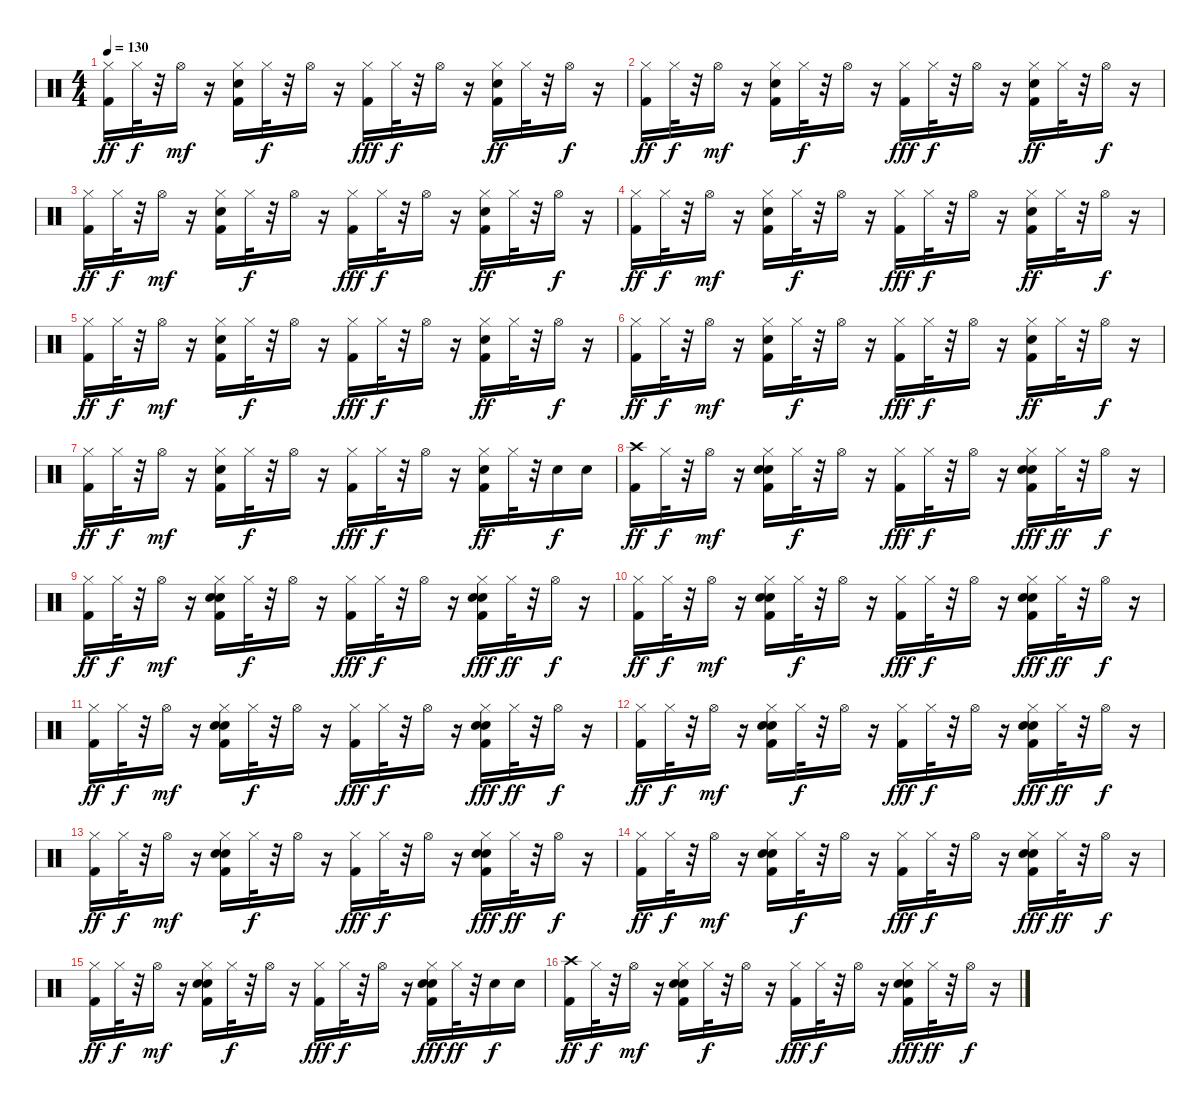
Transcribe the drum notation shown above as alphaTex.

\track "" {instrument percussion}
\staff {score}
\articulation defaults
\ts (4 4)
\tempo 130
\clef neutral
\ks c
("Kick (hit) 2" "Hi-Hat (closed)").16{dy ff} "Hi-Hat (closed)".32{dy f} r.32 "Hi-Hat (open)".16{dy mf} r.16 ("Kick (hit) 2" "Electric Snare (hit)" "Hi-Hat (closed)").16 "Hi-Hat (closed)".32{dy f} r.32 "Hi-Hat (open)".16 r.16 ("Kick (hit) 2" "Hi-Hat (closed)").16{dy fff} "Hi-Hat (closed)".32{dy f} r.32 "Hi-Hat (open)".16 r.16 ("Kick (hit) 2" "Electric Snare (hit)" "Hi-Hat (closed)").16{dy ff} "Hi-Hat (closed)".32 r.32 "Hi-Hat (open)".16{dy f} r.16 |
("Kick (hit) 2" "Hi-Hat (closed)").16{dy ff} "Hi-Hat (closed)".32{dy f} r.32 "Hi-Hat (open)".16{dy mf} r.16 ("Kick (hit) 2" "Electric Snare (hit)" "Hi-Hat (closed)").16 "Hi-Hat (closed)".32{dy f} r.32 "Hi-Hat (open)".16 r.16 ("Kick (hit) 2" "Hi-Hat (closed)").16{dy fff} "Hi-Hat (closed)".32{dy f} r.32 "Hi-Hat (open)".16 r.16 ("Kick (hit) 2" "Electric Snare (hit)" "Hi-Hat (closed)").16{dy ff} "Hi-Hat (closed)".32 r.32 "Hi-Hat (open)".16{dy f} r.16 |
("Kick (hit) 2" "Hi-Hat (closed)").16{dy ff} "Hi-Hat (closed)".32{dy f} r.32 "Hi-Hat (open)".16{dy mf} r.16 ("Kick (hit) 2" "Electric Snare (hit)" "Hi-Hat (closed)").16 "Hi-Hat (closed)".32{dy f} r.32 "Hi-Hat (open)".16 r.16 ("Kick (hit) 2" "Hi-Hat (closed)").16{dy fff} "Hi-Hat (closed)".32{dy f} r.32 "Hi-Hat (open)".16 r.16 ("Kick (hit) 2" "Electric Snare (hit)" "Hi-Hat (closed)").16{dy ff} "Hi-Hat (closed)".32 r.32 "Hi-Hat (open)".16{dy f} r.16 |
("Kick (hit) 2" "Hi-Hat (closed)").16{dy ff} "Hi-Hat (closed)".32{dy f} r.32 "Hi-Hat (open)".16{dy mf} r.16 ("Kick (hit) 2" "Electric Snare (hit)" "Hi-Hat (closed)").16 "Hi-Hat (closed)".32{dy f} r.32 "Hi-Hat (open)".16 r.16 ("Kick (hit) 2" "Hi-Hat (closed)").16{dy fff} "Hi-Hat (closed)".32{dy f} r.32 "Hi-Hat (open)".16 r.16 ("Kick (hit) 2" "Electric Snare (hit)" "Hi-Hat (closed)").16{dy ff} "Hi-Hat (closed)".32 r.32 "Hi-Hat (open)".16{dy f} r.16 |
("Kick (hit) 2" "Hi-Hat (closed)").16{dy ff} "Hi-Hat (closed)".32{dy f} r.32 "Hi-Hat (open)".16{dy mf} r.16 ("Kick (hit) 2" "Electric Snare (hit)" "Hi-Hat (closed)").16 "Hi-Hat (closed)".32{dy f} r.32 "Hi-Hat (open)".16 r.16 ("Kick (hit) 2" "Hi-Hat (closed)").16{dy fff} "Hi-Hat (closed)".32{dy f} r.32 "Hi-Hat (open)".16 r.16 ("Kick (hit) 2" "Electric Snare (hit)" "Hi-Hat (closed)").16{dy ff} "Hi-Hat (closed)".32 r.32 "Hi-Hat (open)".16{dy f} r.16 |
("Kick (hit) 2" "Hi-Hat (closed)").16{dy ff} "Hi-Hat (closed)".32{dy f} r.32 "Hi-Hat (open)".16{dy mf} r.16 ("Kick (hit) 2" "Electric Snare (hit)" "Hi-Hat (closed)").16 "Hi-Hat (closed)".32{dy f} r.32 "Hi-Hat (open)".16 r.16 ("Kick (hit) 2" "Hi-Hat (closed)").16{dy fff} "Hi-Hat (closed)".32{dy f} r.32 "Hi-Hat (open)".16 r.16 ("Kick (hit) 2" "Electric Snare (hit)" "Hi-Hat (closed)").16{dy ff} "Hi-Hat (closed)".32 r.32 "Hi-Hat (open)".16{dy f} r.16 |
("Kick (hit) 2" "Hi-Hat (closed)").16{dy ff} "Hi-Hat (closed)".32{dy f} r.32 "Hi-Hat (open)".16{dy mf} r.16 ("Kick (hit) 2" "Electric Snare (hit)" "Hi-Hat (closed)").16 "Hi-Hat (closed)".32{dy f} r.32 "Hi-Hat (open)".16 r.16 ("Kick (hit) 2" "Hi-Hat (closed)").16{dy fff} "Hi-Hat (closed)".32{dy f} r.32 "Hi-Hat (open)".16 r.16 ("Kick (hit) 2" "Electric Snare (hit)" "Hi-Hat (closed)").16{dy ff} "Hi-Hat (closed)".32 r.32 "Electric Snare (hit)".16{dy f} "Electric Snare (hit)".16 |
("Kick (hit) 2" "Crash high (hit)").16{dy ff} "Hi-Hat (closed)".32{dy f} r.32 "Hi-Hat (open)".16{dy mf} r.16 ("Kick (hit) 2" "Hand Clap (hit)" "Electric Snare (hit)" "Hi-Hat (closed)").16 "Hi-Hat (closed)".32{dy f} r.32 "Hi-Hat (open)".16 r.16 ("Kick (hit) 2" "Hi-Hat (closed)").16{dy fff} "Hi-Hat (closed)".32{dy f} r.32 "Hi-Hat (open)".16 r.16 ("Kick (hit) 2" "Hand Clap (hit)" "Electric Snare (hit)" "Hi-Hat (closed)").16{dy fff} "Hi-Hat (closed)".32{dy ff} r.32 "Hi-Hat (open)".16{dy f} r.16 |
("Kick (hit) 2" "Hi-Hat (closed)").16{dy ff} "Hi-Hat (closed)".32{dy f} r.32 "Hi-Hat (open)".16{dy mf} r.16 ("Kick (hit) 2" "Hand Clap (hit)" "Electric Snare (hit)" "Hi-Hat (closed)").16 "Hi-Hat (closed)".32{dy f} r.32 "Hi-Hat (open)".16 r.16 ("Kick (hit) 2" "Hi-Hat (closed)").16{dy fff} "Hi-Hat (closed)".32{dy f} r.32 "Hi-Hat (open)".16 r.16 ("Kick (hit) 2" "Hand Clap (hit)" "Electric Snare (hit)" "Hi-Hat (closed)").16{dy fff} "Hi-Hat (closed)".32{dy ff} r.32 "Hi-Hat (open)".16{dy f} r.16 |
("Kick (hit) 2" "Hi-Hat (closed)").16{dy ff} "Hi-Hat (closed)".32{dy f} r.32 "Hi-Hat (open)".16{dy mf} r.16 ("Kick (hit) 2" "Hand Clap (hit)" "Electric Snare (hit)" "Hi-Hat (closed)").16 "Hi-Hat (closed)".32{dy f} r.32 "Hi-Hat (open)".16 r.16 ("Kick (hit) 2" "Hi-Hat (closed)").16{dy fff} "Hi-Hat (closed)".32{dy f} r.32 "Hi-Hat (open)".16 r.16 ("Kick (hit) 2" "Hand Clap (hit)" "Electric Snare (hit)" "Hi-Hat (closed)").16{dy fff} "Hi-Hat (closed)".32{dy ff} r.32 "Hi-Hat (open)".16{dy f} r.16 |
("Kick (hit) 2" "Hi-Hat (closed)").16{dy ff} "Hi-Hat (closed)".32{dy f} r.32 "Hi-Hat (open)".16{dy mf} r.16 ("Kick (hit) 2" "Hand Clap (hit)" "Electric Snare (hit)" "Hi-Hat (closed)").16 "Hi-Hat (closed)".32{dy f} r.32 "Hi-Hat (open)".16 r.16 ("Kick (hit) 2" "Hi-Hat (closed)").16{dy fff} "Hi-Hat (closed)".32{dy f} r.32 "Hi-Hat (open)".16 r.16 ("Kick (hit) 2" "Hand Clap (hit)" "Electric Snare (hit)" "Hi-Hat (closed)").16{dy fff} "Hi-Hat (closed)".32{dy ff} r.32 "Hi-Hat (open)".16{dy f} r.16 |
("Kick (hit) 2" "Hi-Hat (closed)").16{dy ff} "Hi-Hat (closed)".32{dy f} r.32 "Hi-Hat (open)".16{dy mf} r.16 ("Kick (hit) 2" "Hand Clap (hit)" "Electric Snare (hit)" "Hi-Hat (closed)").16 "Hi-Hat (closed)".32{dy f} r.32 "Hi-Hat (open)".16 r.16 ("Kick (hit) 2" "Hi-Hat (closed)").16{dy fff} "Hi-Hat (closed)".32{dy f} r.32 "Hi-Hat (open)".16 r.16 ("Kick (hit) 2" "Hand Clap (hit)" "Electric Snare (hit)" "Hi-Hat (closed)").16{dy fff} "Hi-Hat (closed)".32{dy ff} r.32 "Hi-Hat (open)".16{dy f} r.16 |
("Kick (hit) 2" "Hi-Hat (closed)").16{dy ff} "Hi-Hat (closed)".32{dy f} r.32 "Hi-Hat (open)".16{dy mf} r.16 ("Kick (hit) 2" "Hand Clap (hit)" "Electric Snare (hit)" "Hi-Hat (closed)").16 "Hi-Hat (closed)".32{dy f} r.32 "Hi-Hat (open)".16 r.16 ("Kick (hit) 2" "Hi-Hat (closed)").16{dy fff} "Hi-Hat (closed)".32{dy f} r.32 "Hi-Hat (open)".16 r.16 ("Kick (hit) 2" "Hand Clap (hit)" "Electric Snare (hit)" "Hi-Hat (closed)").16{dy fff} "Hi-Hat (closed)".32{dy ff} r.32 "Hi-Hat (open)".16{dy f} r.16 |
("Kick (hit) 2" "Hi-Hat (closed)").16{dy ff} "Hi-Hat (closed)".32{dy f} r.32 "Hi-Hat (open)".16{dy mf} r.16 ("Kick (hit) 2" "Hand Clap (hit)" "Electric Snare (hit)" "Hi-Hat (closed)").16 "Hi-Hat (closed)".32{dy f} r.32 "Hi-Hat (open)".16 r.16 ("Kick (hit) 2" "Hi-Hat (closed)").16{dy fff} "Hi-Hat (closed)".32{dy f} r.32 "Hi-Hat (open)".16 r.16 ("Kick (hit) 2" "Hand Clap (hit)" "Electric Snare (hit)" "Hi-Hat (closed)").16{dy fff} "Hi-Hat (closed)".32{dy ff} r.32 "Hi-Hat (open)".16{dy f} r.16 |
("Kick (hit) 2" "Hi-Hat (closed)").16{dy ff} "Hi-Hat (closed)".32{dy f} r.32 "Hi-Hat (open)".16{dy mf} r.16 ("Kick (hit) 2" "Hand Clap (hit)" "Electric Snare (hit)" "Hi-Hat (closed)").16 "Hi-Hat (closed)".32{dy f} r.32 "Hi-Hat (open)".16 r.16 ("Kick (hit) 2" "Hi-Hat (closed)").16{dy fff} "Hi-Hat (closed)".32{dy f} r.32 "Hi-Hat (open)".16 r.16 ("Kick (hit) 2" "Hand Clap (hit)" "Electric Snare (hit)" "Hi-Hat (closed)").16{dy fff} "Hi-Hat (closed)".32{dy ff} r.32 "Electric Snare (hit)".16{dy f} "Electric Snare (hit)".16 |
("Kick (hit) 2" "Crash high (hit)").16{dy ff} "Hi-Hat (closed)".32{dy f} r.32 "Hi-Hat (open)".16{dy mf} r.16 ("Kick (hit) 2" "Hand Clap (hit)" "Electric Snare (hit)" "Hi-Hat (closed)").16 "Hi-Hat (closed)".32{dy f} r.32 "Hi-Hat (open)".16 r.16 ("Kick (hit) 2" "Hi-Hat (closed)").16{dy fff} "Hi-Hat (closed)".32{dy f} r.32 "Hi-Hat (open)".16 r.16 ("Kick (hit) 2" "Hand Clap (hit)" "Electric Snare (hit)" "Hi-Hat (closed)").16{dy fff} "Hi-Hat (closed)".32{dy ff} r.32 "Hi-Hat (open)".16{dy f} r.16
